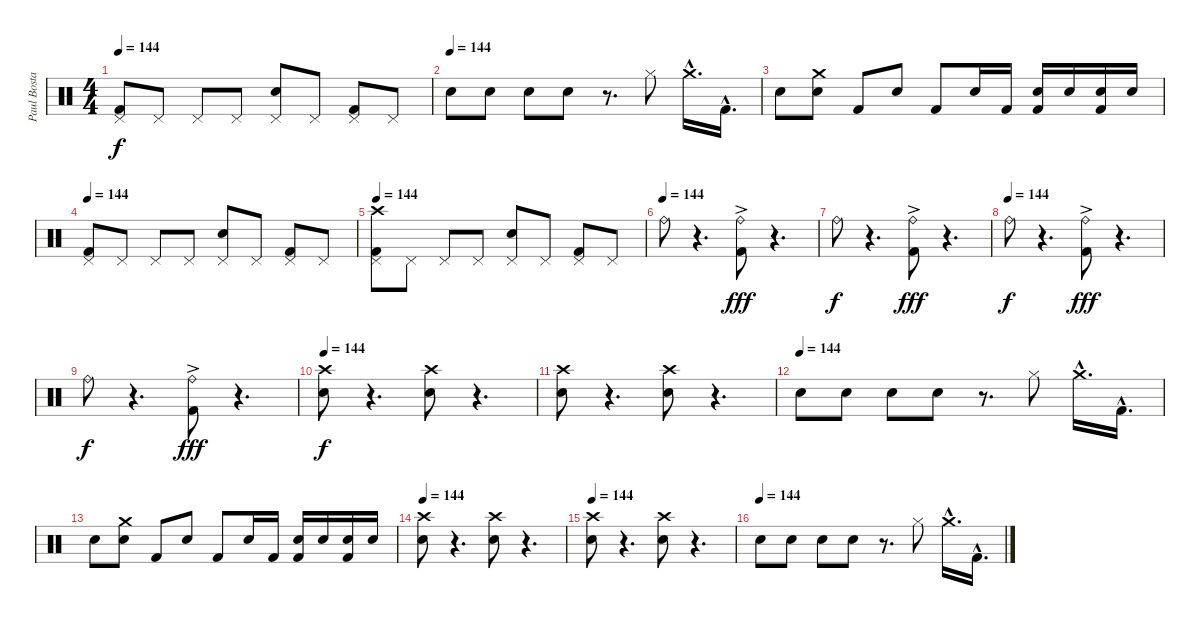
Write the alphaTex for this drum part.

\track ("Paul Bostaph" "Paul Bosta") {instrument percussion}
\staff {score}
\articulation defaults
\ts (4 4)
\tempo 144
\clef neutral
\ks c
("Kick (hit) 2" "Pedal Hi-Hat (hit)").8{dy f} "Pedal Hi-Hat (hit)".8 "Pedal Hi-Hat (hit)".8 "Pedal Hi-Hat (hit)".8 ("Snare (hit) 2" "Pedal Hi-Hat (hit)").8 "Pedal Hi-Hat (hit)".8 ("Kick (hit) 2" "Pedal Hi-Hat (hit)").8 "Pedal Hi-Hat (hit)".8 |
\tempo (144)
"Snare (hit) 2".8 "Snare (hit) 2".8 "Snare (hit) 2".8 "Snare (hit) 2".8 r.8{d} "Hi-Hat (closed)".8 "Crash medium (hit)"{hac}.16{d} "Kick (hit) 2"{hac}.16{d} |
"Snare (hit) 2".8 ("Snare (hit) 2" "Crash medium (hit)").8 "Kick (hit) 2".8 "Snare (hit) 2".8 "Kick (hit) 2".8 "Snare (hit) 2".16 "Kick (hit) 2".16 ("Snare (hit) 2" "Kick (hit) 2").16 "Snare (hit) 2".16 ("Snare (hit) 2" "Kick (hit) 2").16 "Snare (hit) 2".16 |
\tempo 144
("Kick (hit) 2" "Pedal Hi-Hat (hit)").8 "Pedal Hi-Hat (hit)".8 "Pedal Hi-Hat (hit)".8 "Pedal Hi-Hat (hit)".8 ("Snare (hit) 2" "Pedal Hi-Hat (hit)").8 "Pedal Hi-Hat (hit)".8 ("Kick (hit) 2" "Pedal Hi-Hat (hit)").8 "Pedal Hi-Hat (hit)".8 |
\tempo 144
("Crash high (hit)" "Kick (hit) 2" "Pedal Hi-Hat (hit)").8 "Pedal Hi-Hat (hit)".8 "Pedal Hi-Hat (hit)".8 "Pedal Hi-Hat (hit)".8 ("Snare (hit) 2" "Pedal Hi-Hat (hit)").8 "Pedal Hi-Hat (hit)".8 ("Kick (hit) 2" "Pedal Hi-Hat (hit)").8 "Pedal Hi-Hat (hit)".8 |
\tempo (144)
"Ride (bell)".8 r.4{d} ("Kick (hit) 2"{ac} "Ride (bell)").8{dy fff} r.4{d} |
"Ride (bell)".8{dy f} r.4{d} ("Kick (hit) 2"{ac} "Ride (bell)").8{dy fff} r.4{d} |
\tempo (144)
"Ride (bell)".8{dy f} r.4{d} ("Kick (hit) 2"{ac} "Ride (bell)").8{dy fff} r.4{d} |
"Ride (bell)".8{dy f} r.4{d} ("Kick (hit) 2"{ac} "Ride (bell)").8{dy fff} r.4{d} |
\tempo 144
("Snare (hit) 2" "Crash high (hit)").8{dy f} r.4{d} ("Snare (hit) 2" "Crash high (hit)").8 r.4{d} |
("Snare (hit) 2" "Crash high (hit)").8 r.4{d} ("Snare (hit) 2" "Crash high (hit)").8 r.4{d} |
\tempo (144)
"Snare (hit) 2".8 "Snare (hit) 2".8 "Snare (hit) 2".8 "Snare (hit) 2".8 r.8{d} "Hi-Hat (closed)".8 "Crash medium (hit)"{hac}.16{d} "Kick (hit) 2"{hac}.16{d} |
"Snare (hit) 2".8 ("Snare (hit) 2" "Crash medium (hit)").8 "Kick (hit) 2".8 "Snare (hit) 2".8 "Kick (hit) 2".8 "Snare (hit) 2".16 "Kick (hit) 2".16 ("Snare (hit) 2" "Kick (hit) 2").16 "Snare (hit) 2".16 ("Snare (hit) 2" "Kick (hit) 2").16 "Snare (hit) 2".16 |
\tempo 144
("Snare (hit) 2" "Crash high (hit)").8 r.4{d} ("Snare (hit) 2" "Crash high (hit)").8 r.4{d} |
\tempo 144
("Snare (hit) 2" "Crash high (hit)").8 r.4{d} ("Snare (hit) 2" "Crash high (hit)").8 r.4{d} |
\tempo (144)
"Snare (hit) 2".8 "Snare (hit) 2".8 "Snare (hit) 2".8 "Snare (hit) 2".8 r.8{d} "Hi-Hat (closed)".8 "Crash medium (hit)"{hac}.16{d} "Kick (hit) 2"{hac}.16{d}
